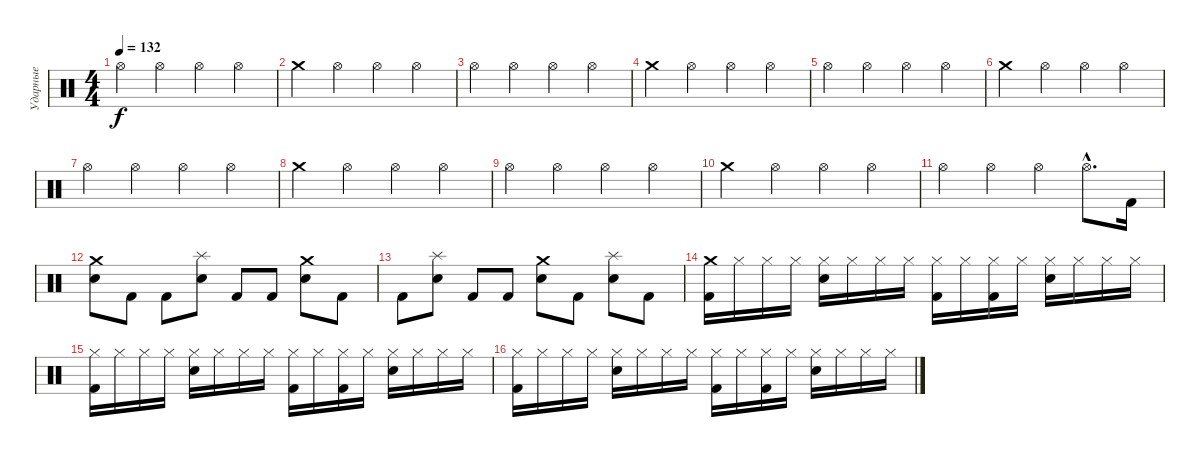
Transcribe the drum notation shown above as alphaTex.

\track ("Ударные" "Ударные") {instrument percussion}
\staff {score}
\articulation defaults
\ts (4 4)
\tempo 132
\clef neutral
\ks c "Hi-Hat (open)".4{dy f} "Hi-Hat (open)".4 "Hi-Hat (open)".4 "Hi-Hat (open)".4
|
"Crash medium (hit)".4 "Hi-Hat (open)".4 "Hi-Hat (open)".4 "Hi-Hat (open)".4 |
"Hi-Hat (open)".4 "Hi-Hat (open)".4 "Hi-Hat (open)".4 "Hi-Hat (open)".4 |
"Crash medium (hit)".4 "Hi-Hat (open)".4 "Hi-Hat (open)".4 "Hi-Hat (open)".4 |
"Hi-Hat (open)".4 "Hi-Hat (open)".4 "Hi-Hat (open)".4 "Hi-Hat (open)".4 |
"Crash medium (hit)".4 "Hi-Hat (open)".4 "Hi-Hat (open)".4 "Hi-Hat (open)".4 |
"Hi-Hat (open)".4 "Hi-Hat (open)".4 "Hi-Hat (open)".4 "Hi-Hat (open)".4 |
"Crash medium (hit)".4 "Hi-Hat (open)".4 "Hi-Hat (open)".4 "Hi-Hat (open)".4 |
"Hi-Hat (open)".4 "Hi-Hat (open)".4 "Hi-Hat (open)".4 "Hi-Hat (open)".4 |
"Crash medium (hit)".4 "Hi-Hat (open)".4 "Hi-Hat (open)".4 "Hi-Hat (open)".4 |
"Hi-Hat (open)".4 "Hi-Hat (open)".4 "Hi-Hat (open)".4 "Hi-Hat (open)"{hac}.8{d} "Kick (hit) 2".16 |
("Crash medium (hit)" "Electric Snare (hit)").8 "Kick (hit) 2".8 "Kick (hit) 2".8 ("Splash (hit)" "Electric Snare (hit)").8 "Kick (hit) 2".8 "Kick (hit) 2".8 ("Crash medium (hit)" "Electric Snare (hit)").8 "Kick (hit) 2".8 |
"Kick (hit) 2".8 ("Splash (hit)" "Electric Snare (hit)").8 "Kick (hit) 2".8 "Kick (hit) 2".8 ("Crash medium (hit)" "Electric Snare (hit)").8 "Kick (hit) 2".8 ("Splash (hit)" "Electric Snare (hit)").8 "Kick (hit) 2".8 |
("Crash medium (hit)" "Kick (hit) 2").16 "Hi-Hat (closed)".16 "Hi-Hat (closed)".16 "Hi-Hat (closed)".16 ("Hi-Hat (closed)" "Electric Snare (hit)").16 "Hi-Hat (closed)".16 "Hi-Hat (closed)".16 "Hi-Hat (closed)".16 ("Hi-Hat (closed)" "Kick (hit) 2").16 "Hi-Hat (closed)".16 ("Hi-Hat (closed)" "Kick (hit) 2").16 "Hi-Hat (closed)".16 ("Hi-Hat (closed)" "Electric Snare (hit)").16 "Hi-Hat (closed)".16 "Hi-Hat (closed)".16 "Hi-Hat (closed)".16 |
("Hi-Hat (closed)" "Kick (hit) 2").16 "Hi-Hat (closed)".16 "Hi-Hat (closed)".16 "Hi-Hat (closed)".16 ("Hi-Hat (closed)" "Electric Snare (hit)").16 "Hi-Hat (closed)".16 "Hi-Hat (closed)".16 "Hi-Hat (closed)".16 ("Hi-Hat (closed)" "Kick (hit) 2").16 "Hi-Hat (closed)".16 ("Hi-Hat (closed)" "Kick (hit) 2").16 "Hi-Hat (closed)".16 ("Hi-Hat (closed)" "Electric Snare (hit)").16 "Hi-Hat (closed)".16 "Hi-Hat (closed)".16 "Hi-Hat (closed)".16 |
("Hi-Hat (closed)" "Kick (hit) 2").16 "Hi-Hat (closed)".16 "Hi-Hat (closed)".16 "Hi-Hat (closed)".16 ("Hi-Hat (closed)" "Electric Snare (hit)").16 "Hi-Hat (closed)".16 "Hi-Hat (closed)".16 "Hi-Hat (closed)".16 ("Hi-Hat (closed)" "Kick (hit) 2").16 "Hi-Hat (closed)".16 ("Hi-Hat (closed)" "Kick (hit) 2").16 "Hi-Hat (closed)".16 ("Hi-Hat (closed)" "Electric Snare (hit)").16 "Hi-Hat (closed)".16 "Hi-Hat (closed)".16 "Hi-Hat (closed)".16
